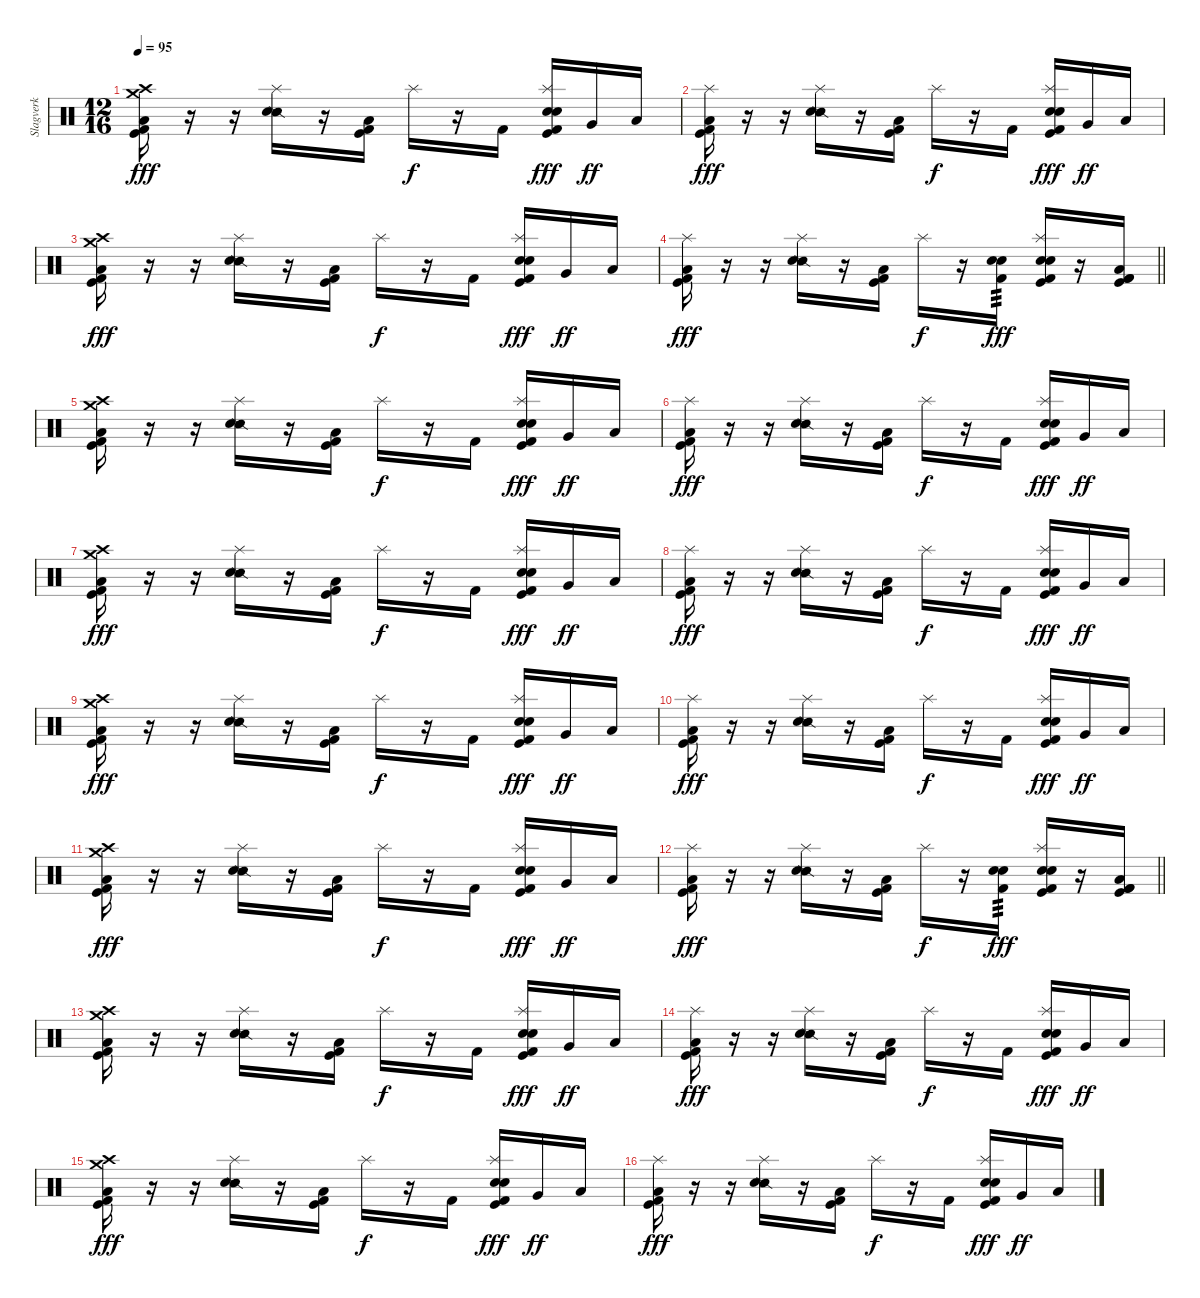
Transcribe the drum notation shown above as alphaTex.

\track ("Slagverk" "Slagverk") {instrument percussion}
\staff {score}
\articulation defaults
\ts (12 16)
\tempo 95
\clef neutral
\ks c
("Crash high (hit)" "Crash medium (hit)" "Low Floor Tom (hit)" "Kick (hit)" "Kick (hit) 2").16{dy fff} r.16 r.16 ("Splash (hit)" "Snare (side stick) 2" "Snare (hit) 2").16 r.16 ("Low Floor Tom (hit)" "Kick (hit)" "Kick (hit) 2").16 "Splash (hit)".16{dy f} r.16 "Kick (hit) 2".16 ("Splash (hit)" "Snare (hit) 2" "Electric Snare (hit)" "Kick (hit)" "Kick (hit) 2").16{dy fff} "Very Low Tom (hit)".16{dy ff} "Low Floor Tom (hit)".16 |
("Splash (hit)" "Low Floor Tom (hit)" "Kick (hit)" "Kick (hit) 2").16{dy fff} r.16 r.16 ("Splash (hit)" "Snare (side stick) 2" "Snare (hit) 2").16 r.16 ("Low Floor Tom (hit)" "Kick (hit)" "Kick (hit) 2").16 "Splash (hit)".16{dy f} r.16 "Kick (hit) 2".16 ("Splash (hit)" "Snare (hit) 2" "Electric Snare (hit)" "Kick (hit)" "Kick (hit) 2").16{dy fff} "Very Low Tom (hit)".16{dy ff} "Low Floor Tom (hit)".16 |
("Crash high (hit)" "Crash medium (hit)" "Low Floor Tom (hit)" "Kick (hit)" "Kick (hit) 2").16{dy fff} r.16 r.16 ("Splash (hit)" "Snare (side stick) 2" "Snare (hit) 2").16 r.16 ("Low Floor Tom (hit)" "Kick (hit)" "Kick (hit) 2").16 "Splash (hit)".16{dy f} r.16 "Kick (hit) 2".16 ("Splash (hit)" "Snare (hit) 2" "Electric Snare (hit)" "Kick (hit)" "Kick (hit) 2").16{dy fff} "Very Low Tom (hit)".16{dy ff} "Low Floor Tom (hit)".16 |
\barLineRight lightlight
("Splash (hit)" "Low Floor Tom (hit)" "Kick (hit)" "Kick (hit) 2").16{dy fff} r.16 r.16 ("Splash (hit)" "Snare (side stick) 2" "Snare (hit) 2").16 r.16 ("Low Floor Tom (hit)" "Kick (hit)" "Kick (hit) 2").16 "Splash (hit)".16{dy f} r.16 ("Electric Snare (hit)" "Snare (hit) 2" "Kick (hit) 2").16{tp 3 dy fff} ("Splash (hit)" "Snare (hit) 2" "Electric Snare (hit)" "Kick (hit)" "Kick (hit) 2").16 r.16 ("Low Floor Tom (hit)" "Kick (hit) 2" "Kick (hit) 2" "Kick (hit)").16 |
("Crash high (hit)" "Crash medium (hit)" "Low Floor Tom (hit)" "Kick (hit)" "Kick (hit) 2").16 r.16 r.16 ("Splash (hit)" "Snare (side stick) 2" "Snare (hit) 2").16 r.16 ("Low Floor Tom (hit)" "Kick (hit)" "Kick (hit) 2").16 "Splash (hit)".16{dy f} r.16 "Kick (hit) 2".16 ("Splash (hit)" "Snare (hit) 2" "Electric Snare (hit)" "Kick (hit)" "Kick (hit) 2").16{dy fff} "Very Low Tom (hit)".16{dy ff} "Low Floor Tom (hit)".16 |
("Splash (hit)" "Low Floor Tom (hit)" "Kick (hit)" "Kick (hit) 2").16{dy fff} r.16 r.16 ("Splash (hit)" "Snare (side stick) 2" "Snare (hit) 2").16 r.16 ("Low Floor Tom (hit)" "Kick (hit)" "Kick (hit) 2").16 "Splash (hit)".16{dy f} r.16 "Kick (hit) 2".16 ("Splash (hit)" "Snare (hit) 2" "Electric Snare (hit)" "Kick (hit)" "Kick (hit) 2").16{dy fff} "Very Low Tom (hit)".16{dy ff} "Low Floor Tom (hit)".16 |
("Crash high (hit)" "Crash medium (hit)" "Low Floor Tom (hit)" "Kick (hit)" "Kick (hit) 2").16{dy fff} r.16 r.16 ("Splash (hit)" "Snare (side stick) 2" "Snare (hit) 2").16 r.16 ("Low Floor Tom (hit)" "Kick (hit)" "Kick (hit) 2").16 "Splash (hit)".16{dy f} r.16 "Kick (hit) 2".16 ("Splash (hit)" "Snare (hit) 2" "Electric Snare (hit)" "Kick (hit)" "Kick (hit) 2").16{dy fff} "Very Low Tom (hit)".16{dy ff} "Low Floor Tom (hit)".16 |
("Splash (hit)" "Low Floor Tom (hit)" "Kick (hit)" "Kick (hit) 2").16{dy fff} r.16 r.16 ("Splash (hit)" "Snare (side stick) 2" "Snare (hit) 2").16 r.16 ("Low Floor Tom (hit)" "Kick (hit)" "Kick (hit) 2").16 "Splash (hit)".16{dy f} r.16 "Kick (hit) 2".16 ("Splash (hit)" "Snare (hit) 2" "Electric Snare (hit)" "Kick (hit)" "Kick (hit) 2").16{dy fff} "Very Low Tom (hit)".16{dy ff} "Low Floor Tom (hit)".16 |
("Crash high (hit)" "Crash medium (hit)" "Low Floor Tom (hit)" "Kick (hit)" "Kick (hit) 2").16{dy fff} r.16 r.16 ("Splash (hit)" "Snare (side stick) 2" "Snare (hit) 2").16 r.16 ("Low Floor Tom (hit)" "Kick (hit)" "Kick (hit) 2").16 "Splash (hit)".16{dy f} r.16 "Kick (hit) 2".16 ("Splash (hit)" "Snare (hit) 2" "Electric Snare (hit)" "Kick (hit)" "Kick (hit) 2").16{dy fff} "Very Low Tom (hit)".16{dy ff} "Low Floor Tom (hit)".16 |
("Splash (hit)" "Low Floor Tom (hit)" "Kick (hit)" "Kick (hit) 2").16{dy fff} r.16 r.16 ("Splash (hit)" "Snare (side stick) 2" "Snare (hit) 2").16 r.16 ("Low Floor Tom (hit)" "Kick (hit)" "Kick (hit) 2").16 "Splash (hit)".16{dy f} r.16 "Kick (hit) 2".16 ("Splash (hit)" "Snare (hit) 2" "Electric Snare (hit)" "Kick (hit)" "Kick (hit) 2").16{dy fff} "Very Low Tom (hit)".16{dy ff} "Low Floor Tom (hit)".16 |
("Crash high (hit)" "Crash medium (hit)" "Low Floor Tom (hit)" "Kick (hit)" "Kick (hit) 2").16{dy fff} r.16 r.16 ("Splash (hit)" "Snare (side stick) 2" "Snare (hit) 2").16 r.16 ("Low Floor Tom (hit)" "Kick (hit)" "Kick (hit) 2").16 "Splash (hit)".16{dy f} r.16 "Kick (hit) 2".16 ("Splash (hit)" "Snare (hit) 2" "Electric Snare (hit)" "Kick (hit)" "Kick (hit) 2").16{dy fff} "Very Low Tom (hit)".16{dy ff} "Low Floor Tom (hit)".16 |
\barLineRight lightlight
("Splash (hit)" "Low Floor Tom (hit)" "Kick (hit)" "Kick (hit) 2").16{dy fff} r.16 r.16 ("Splash (hit)" "Snare (side stick) 2" "Snare (hit) 2").16 r.16 ("Low Floor Tom (hit)" "Kick (hit)" "Kick (hit) 2").16 "Splash (hit)".16{dy f} r.16 ("Electric Snare (hit)" "Snare (hit) 2" "Kick (hit) 2").16{tp 3 dy fff} ("Splash (hit)" "Snare (hit) 2" "Electric Snare (hit)" "Kick (hit)" "Kick (hit) 2").16 r.16 ("Low Floor Tom (hit)" "Kick (hit) 2" "Kick (hit) 2" "Kick (hit)").16 |
("Crash high (hit)" "Crash medium (hit)" "Low Floor Tom (hit)" "Kick (hit)" "Kick (hit) 2").16 r.16 r.16 ("Splash (hit)" "Snare (side stick) 2" "Snare (hit) 2").16 r.16 ("Low Floor Tom (hit)" "Kick (hit)" "Kick (hit) 2").16 "Splash (hit)".16{dy f} r.16 "Kick (hit) 2".16 ("Splash (hit)" "Snare (hit) 2" "Electric Snare (hit)" "Kick (hit)" "Kick (hit) 2").16{dy fff} "Very Low Tom (hit)".16{dy ff} "Low Floor Tom (hit)".16 |
("Splash (hit)" "Low Floor Tom (hit)" "Kick (hit)" "Kick (hit) 2").16{dy fff} r.16 r.16 ("Splash (hit)" "Snare (side stick) 2" "Snare (hit) 2").16 r.16 ("Low Floor Tom (hit)" "Kick (hit)" "Kick (hit) 2").16 "Splash (hit)".16{dy f} r.16 "Kick (hit) 2".16 ("Splash (hit)" "Snare (hit) 2" "Electric Snare (hit)" "Kick (hit)" "Kick (hit) 2").16{dy fff} "Very Low Tom (hit)".16{dy ff} "Low Floor Tom (hit)".16 |
("Crash high (hit)" "Crash medium (hit)" "Low Floor Tom (hit)" "Kick (hit)" "Kick (hit) 2").16{dy fff} r.16 r.16 ("Splash (hit)" "Snare (side stick) 2" "Snare (hit) 2").16 r.16 ("Low Floor Tom (hit)" "Kick (hit)" "Kick (hit) 2").16 "Splash (hit)".16{dy f} r.16 "Kick (hit) 2".16 ("Splash (hit)" "Snare (hit) 2" "Electric Snare (hit)" "Kick (hit)" "Kick (hit) 2").16{dy fff} "Very Low Tom (hit)".16{dy ff} "Low Floor Tom (hit)".16 |
("Splash (hit)" "Low Floor Tom (hit)" "Kick (hit)" "Kick (hit) 2").16{dy fff} r.16 r.16 ("Splash (hit)" "Snare (side stick) 2" "Snare (hit) 2").16 r.16 ("Low Floor Tom (hit)" "Kick (hit)" "Kick (hit) 2").16 "Splash (hit)".16{dy f} r.16 "Kick (hit) 2".16 ("Splash (hit)" "Snare (hit) 2" "Electric Snare (hit)" "Kick (hit)" "Kick (hit) 2").16{dy fff} "Very Low Tom (hit)".16{dy ff} "Low Floor Tom (hit)".16
